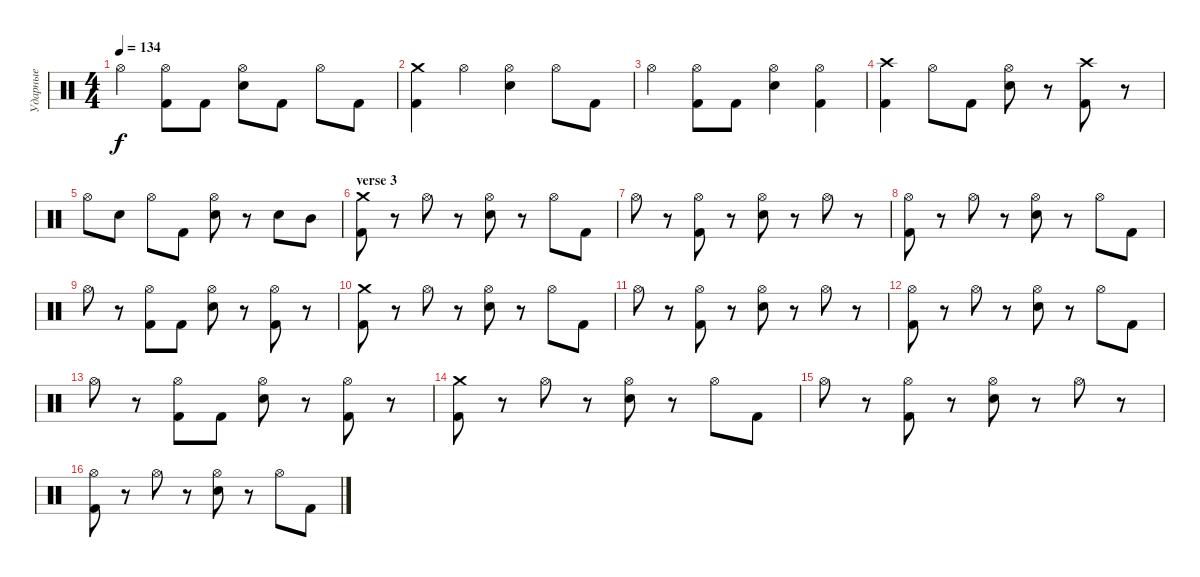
\track ("Ударные" "Ударные") {instrument percussion}
\staff {score}
\articulation defaults
\ts (4 4)
\tempo 134
\clef neutral
\ks c "Hi-Hat (open)".4{dy f}
("Hi-Hat (open)" "Kick (hit) 2").8 "Kick (hit) 2".8 ("Hi-Hat (open)" "Electric Snare (hit)").8 "Kick (hit) 2".8 "Hi-Hat (open)".8 "Kick (hit) 2".8 |
("Crash medium (hit)" "Kick (hit) 2").4 "Hi-Hat (open)".4 ("Hi-Hat (open)" "Electric Snare (hit)").4 "Hi-Hat (open)".8 "Kick (hit) 2".8 |
"Hi-Hat (open)".4 ("Hi-Hat (open)" "Kick (hit) 2").8 "Kick (hit) 2".8 ("Hi-Hat (open)" "Electric Snare (hit)").4 ("Hi-Hat (open)" "Kick (hit) 2").4 |
("Crash high (hit)" "Kick (hit) 2").4 "Hi-Hat (open)".8 "Kick (hit) 2".8 ("Hi-Hat (open)" "Electric Snare (hit)").8 r.8 ("Crash high (hit)" "Kick (hit) 2").8 r.8 |
"Hi-Hat (open)".8 "Electric Snare (hit)".8 "Hi-Hat (open)".8 "Kick (hit) 2".8 ("Hi-Hat (open)" "Electric Snare (hit)").8 r.8 "Electric Snare (hit)".8 "Mid Tom (hit)".8 |
\section ("" "verse 3")
("Crash medium (hit)" "Kick (hit) 2").8 r.8 "Hi-Hat (open)".8 r.8 ("Hi-Hat (open)" "Electric Snare (hit)").8 r.8 "Hi-Hat (open)".8 "Kick (hit) 2".8 |
"Hi-Hat (open)".8 r.8 ("Hi-Hat (open)" "Kick (hit) 2").8 r.8 ("Hi-Hat (open)" "Electric Snare (hit)").8 r.8 "Hi-Hat (open)".8 r.8 |
("Hi-Hat (open)" "Kick (hit) 2").8 r.8 "Hi-Hat (open)".8 r.8 ("Hi-Hat (open)" "Electric Snare (hit)").8 r.8 "Hi-Hat (open)".8 "Kick (hit) 2".8 |
"Hi-Hat (open)".8 r.8 ("Hi-Hat (open)" "Kick (hit) 2").8 "Kick (hit) 2".8 ("Hi-Hat (open)" "Electric Snare (hit)").8 r.8 ("Hi-Hat (open)" "Kick (hit) 2").8 r.8 |
("Crash medium (hit)" "Kick (hit) 2").8 r.8 "Hi-Hat (open)".8 r.8 ("Hi-Hat (open)" "Electric Snare (hit)").8 r.8 "Hi-Hat (open)".8 "Kick (hit) 2".8 |
"Hi-Hat (open)".8 r.8 ("Hi-Hat (open)" "Kick (hit) 2").8 r.8 ("Hi-Hat (open)" "Electric Snare (hit)").8 r.8 "Hi-Hat (open)".8 r.8 |
("Hi-Hat (open)" "Kick (hit) 2").8 r.8 "Hi-Hat (open)".8 r.8 ("Hi-Hat (open)" "Electric Snare (hit)").8 r.8 "Hi-Hat (open)".8 "Kick (hit) 2".8 |
"Hi-Hat (open)".8 r.8 ("Hi-Hat (open)" "Kick (hit) 2").8 "Kick (hit) 2".8 ("Hi-Hat (open)" "Electric Snare (hit)").8 r.8 ("Hi-Hat (open)" "Kick (hit) 2").8 r.8 |
("Crash medium (hit)" "Kick (hit) 2").8 r.8 "Hi-Hat (open)".8 r.8 ("Hi-Hat (open)" "Electric Snare (hit)").8 r.8 "Hi-Hat (open)".8 "Kick (hit) 2".8 |
"Hi-Hat (open)".8 r.8 ("Hi-Hat (open)" "Kick (hit) 2").8 r.8 ("Hi-Hat (open)" "Electric Snare (hit)").8 r.8 "Hi-Hat (open)".8 r.8 |
("Hi-Hat (open)" "Kick (hit) 2").8 r.8 "Hi-Hat (open)".8 r.8 ("Hi-Hat (open)" "Electric Snare (hit)").8 r.8 "Hi-Hat (open)".8 "Kick (hit) 2".8
